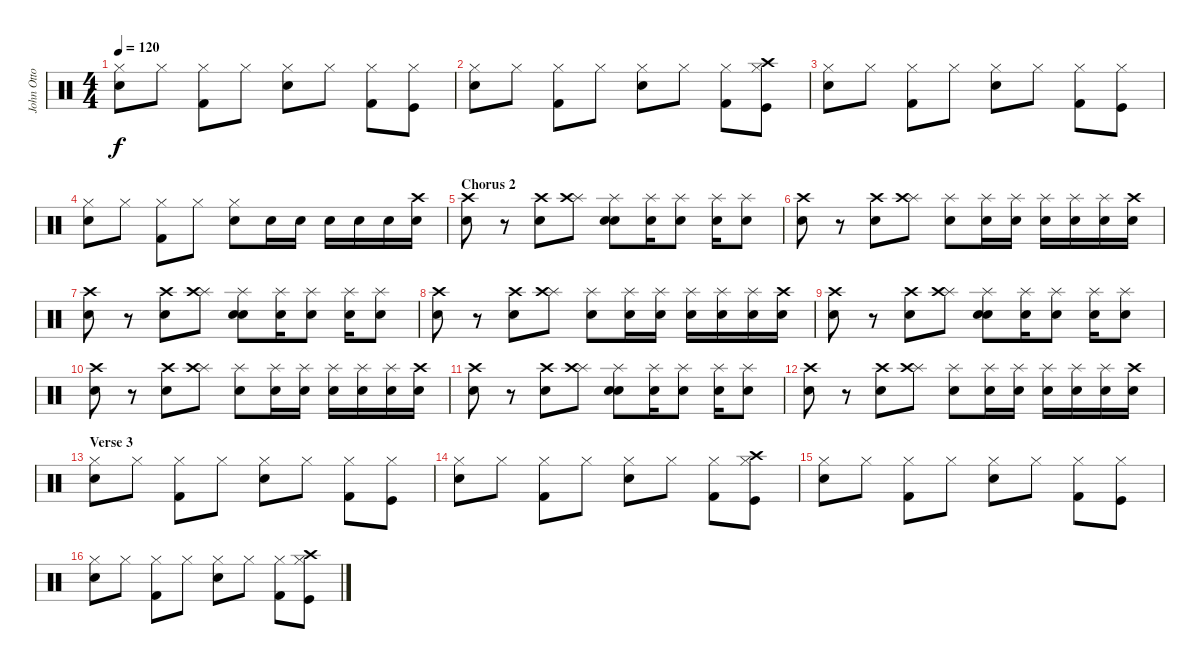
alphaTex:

\track ("John Otto (Drums)" "John Otto ") {instrument percussion}
\staff {score}
\articulation defaults
\ts (4 4)
\tempo 120
\clef neutral
\ks c
("Hi-Hat (closed)" "Electric Snare (hit)").8{dy f} "Hi-Hat (closed)".8 ("Hi-Hat (closed)" "Kick (hit) 2").8 "Hi-Hat (closed)".8 ("Hi-Hat (closed)" "Electric Snare (hit)").8 "Hi-Hat (closed)".8 ("Hi-Hat (closed)" "Kick (hit) 2").8 ("Hi-Hat (closed)" "Kick (hit)").8 |
("Hi-Hat (closed)" "Electric Snare (hit)").8 "Hi-Hat (closed)".8 ("Hi-Hat (closed)" "Kick (hit) 2").8 "Hi-Hat (closed)".8 ("Hi-Hat (closed)" "Electric Snare (hit)").8 "Hi-Hat (closed)".8 ("Hi-Hat (closed)" "Kick (hit) 2").8 ("Hi-Hat (closed)" "Crash high (hit)" "Kick (hit)").8 |
("Hi-Hat (closed)" "Electric Snare (hit)").8 "Hi-Hat (closed)".8 ("Hi-Hat (closed)" "Kick (hit) 2").8 "Hi-Hat (closed)".8 ("Hi-Hat (closed)" "Electric Snare (hit)").8 "Hi-Hat (closed)".8 ("Hi-Hat (closed)" "Kick (hit) 2").8 ("Hi-Hat (closed)" "Kick (hit)").8 |
("Hi-Hat (closed)" "Electric Snare (hit)").8 "Hi-Hat (closed)".8 ("Hi-Hat (closed)" "Kick (hit) 2").8 "Hi-Hat (closed)".8 ("Hi-Hat (closed)" "Electric Snare (hit)").8 "Snare (hit) 2".16 "Snare (hit) 2".16 "Electric Snare (hit)".16 "Electric Snare (hit)".16 "Snare (hit) 2".16 ("Electric Snare (hit)" "Crash high (hit)").16 |
\section ("" "Chorus 2")
("Snare (hit) 2" "Crash high (hit)").8 r.8 ("Snare (hit) 2" "Crash high (hit)").8 ("Splash (hit)" "Crash high (hit)").8 ("Splash (hit)" "Electric Snare (hit)" "Snare (hit)").8 ("Splash (hit)" "Snare (hit) 2").16 ("Splash (hit)" "Snare (hit) 2").8 ("Splash (hit)" "Electric Snare (hit)").16 ("Splash (hit)" "Electric Snare (hit)").8 |
("Snare (hit) 2" "Crash high (hit)").8 r.8 ("Snare (hit) 2" "Crash high (hit)").8 ("Splash (hit)" "Crash high (hit)").8 ("Splash (hit)" "Electric Snare (hit)").8 ("Splash (hit)" "Snare (hit) 2").16 ("Splash (hit)" "Snare (hit) 2").16 ("Splash (hit)" "Electric Snare (hit)").16 ("Splash (hit)" "Electric Snare (hit)").16 ("Splash (hit)" "Snare (hit) 2").16 ("Electric Snare (hit)" "Crash high (hit)").16 |
("Snare (hit) 2" "Crash high (hit)").8 r.8 ("Snare (hit) 2" "Crash high (hit)").8 ("Splash (hit)" "Crash high (hit)").8 ("Splash (hit)" "Electric Snare (hit)" "Snare (hit)").8 ("Splash (hit)" "Snare (hit) 2").16 ("Splash (hit)" "Snare (hit) 2").8 ("Splash (hit)" "Electric Snare (hit)").16 ("Splash (hit)" "Electric Snare (hit)").8 |
("Snare (hit) 2" "Crash high (hit)").8 r.8 ("Snare (hit) 2" "Crash high (hit)").8 ("Splash (hit)" "Crash high (hit)").8 ("Splash (hit)" "Electric Snare (hit)").8 ("Splash (hit)" "Snare (hit) 2").16 ("Splash (hit)" "Snare (hit) 2").16 ("Splash (hit)" "Electric Snare (hit)").16 ("Splash (hit)" "Electric Snare (hit)").16 ("Splash (hit)" "Snare (hit) 2").16 ("Electric Snare (hit)" "Crash high (hit)").16 |
("Snare (hit) 2" "Crash high (hit)").8 r.8 ("Snare (hit) 2" "Crash high (hit)").8 ("Splash (hit)" "Crash high (hit)").8 ("Splash (hit)" "Electric Snare (hit)" "Snare (hit)").8 ("Splash (hit)" "Snare (hit) 2").16 ("Splash (hit)" "Snare (hit) 2").8 ("Splash (hit)" "Electric Snare (hit)").16 ("Splash (hit)" "Electric Snare (hit)").8 |
("Snare (hit) 2" "Crash high (hit)").8 r.8 ("Snare (hit) 2" "Crash high (hit)").8 ("Splash (hit)" "Crash high (hit)").8 ("Splash (hit)" "Electric Snare (hit)").8 ("Splash (hit)" "Snare (hit) 2").16 ("Splash (hit)" "Snare (hit) 2").16 ("Splash (hit)" "Electric Snare (hit)").16 ("Splash (hit)" "Electric Snare (hit)").16 ("Splash (hit)" "Snare (hit) 2").16 ("Electric Snare (hit)" "Crash high (hit)").16 |
("Snare (hit) 2" "Crash high (hit)").8 r.8 ("Snare (hit) 2" "Crash high (hit)").8 ("Splash (hit)" "Crash high (hit)").8 ("Splash (hit)" "Electric Snare (hit)" "Snare (hit)").8 ("Splash (hit)" "Snare (hit) 2").16 ("Splash (hit)" "Snare (hit) 2").8 ("Splash (hit)" "Electric Snare (hit)").16 ("Splash (hit)" "Electric Snare (hit)").8 |
("Snare (hit) 2" "Crash high (hit)").8 r.8 ("Snare (hit) 2" "Crash high (hit)").8 ("Splash (hit)" "Crash high (hit)").8 ("Splash (hit)" "Electric Snare (hit)").8 ("Splash (hit)" "Snare (hit) 2").16 ("Splash (hit)" "Snare (hit) 2").16 ("Splash (hit)" "Electric Snare (hit)").16 ("Splash (hit)" "Electric Snare (hit)").16 ("Splash (hit)" "Snare (hit) 2").16 ("Electric Snare (hit)" "Crash high (hit)").16 |
\section ("" "Verse 3")
("Hi-Hat (closed)" "Electric Snare (hit)").8 "Hi-Hat (closed)".8 ("Hi-Hat (closed)" "Kick (hit) 2").8 "Hi-Hat (closed)".8 ("Hi-Hat (closed)" "Electric Snare (hit)").8 "Hi-Hat (closed)".8 ("Hi-Hat (closed)" "Kick (hit) 2").8 ("Hi-Hat (closed)" "Kick (hit)").8 |
("Hi-Hat (closed)" "Electric Snare (hit)").8 "Hi-Hat (closed)".8 ("Hi-Hat (closed)" "Kick (hit) 2").8 "Hi-Hat (closed)".8 ("Hi-Hat (closed)" "Electric Snare (hit)").8 "Hi-Hat (closed)".8 ("Hi-Hat (closed)" "Kick (hit) 2").8 ("Hi-Hat (closed)" "Crash high (hit)" "Kick (hit)").8 |
("Hi-Hat (closed)" "Electric Snare (hit)").8 "Hi-Hat (closed)".8 ("Hi-Hat (closed)" "Kick (hit) 2").8 "Hi-Hat (closed)".8 ("Hi-Hat (closed)" "Electric Snare (hit)").8 "Hi-Hat (closed)".8 ("Hi-Hat (closed)" "Kick (hit) 2").8 ("Hi-Hat (closed)" "Kick (hit)").8 |
("Hi-Hat (closed)" "Electric Snare (hit)").8 "Hi-Hat (closed)".8 ("Hi-Hat (closed)" "Kick (hit) 2").8 "Hi-Hat (closed)".8 ("Hi-Hat (closed)" "Electric Snare (hit)").8 "Hi-Hat (closed)".8 ("Hi-Hat (closed)" "Kick (hit) 2").8 ("Hi-Hat (closed)" "Crash high (hit)" "Kick (hit)").8
